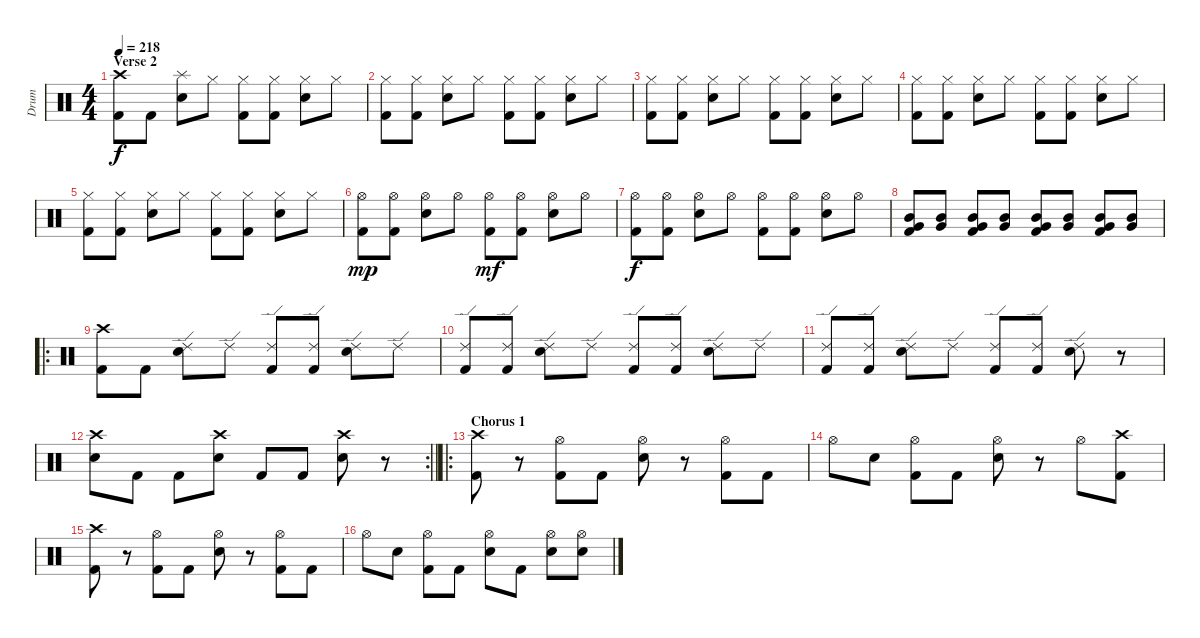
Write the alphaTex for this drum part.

\track ("Drum" "Drum") {instrument percussion}
\staff {score}
\articulation defaults
\ts (4 4)
\section ("" "Verse 2")
\tempo 218
\clef neutral
\ks c
("Kick (hit) 2" "Crash high (hit)").8{dy f} "Kick (hit) 2".8 ("Snare (hit) 2" "Splash (hit)").8 "Hi-Hat (closed)".8 ("Kick (hit) 2" "Hi-Hat (closed)").8 ("Kick (hit) 2" "Hi-Hat (closed)").8 ("Snare (hit) 2" "Hi-Hat (closed)").8 "Hi-Hat (closed)".8 |
("Kick (hit) 2" "Hi-Hat (closed)").8 ("Kick (hit) 2" "Hi-Hat (closed)").8 ("Snare (hit) 2" "Hi-Hat (closed)").8 "Hi-Hat (closed)".8 ("Kick (hit) 2" "Hi-Hat (closed)").8 ("Kick (hit) 2" "Hi-Hat (closed)").8 ("Snare (hit) 2" "Hi-Hat (closed)").8 "Hi-Hat (closed)".8 |
("Kick (hit) 2" "Hi-Hat (closed)").8 ("Kick (hit) 2" "Hi-Hat (closed)").8 ("Snare (hit) 2" "Hi-Hat (closed)").8 "Hi-Hat (closed)".8 ("Kick (hit) 2" "Hi-Hat (closed)").8 ("Kick (hit) 2" "Hi-Hat (closed)").8 ("Snare (hit) 2" "Hi-Hat (closed)").8 "Hi-Hat (closed)".8 |
("Kick (hit) 2" "Hi-Hat (closed)").8 ("Kick (hit) 2" "Hi-Hat (closed)").8 ("Snare (hit) 2" "Hi-Hat (closed)").8 "Hi-Hat (closed)".8 ("Kick (hit) 2" "Hi-Hat (closed)").8 ("Kick (hit) 2" "Hi-Hat (closed)").8 ("Snare (hit) 2" "Hi-Hat (closed)").8 "Hi-Hat (closed)".8 |
("Kick (hit) 2" "Hi-Hat (closed)").8 ("Kick (hit) 2" "Hi-Hat (closed)").8 ("Snare (hit) 2" "Hi-Hat (closed)").8 "Hi-Hat (closed)".8 ("Kick (hit) 2" "Hi-Hat (closed)").8 ("Kick (hit) 2" "Hi-Hat (closed)").8 ("Snare (hit) 2" "Hi-Hat (closed)").8 "Hi-Hat (closed)".8 |
("Kick (hit) 2" "Hi-Hat (open)").8{dy mp} ("Kick (hit) 2" "Hi-Hat (open)").8 ("Snare (hit) 2" "Hi-Hat (open)").8 "Hi-Hat (open)".8 ("Kick (hit) 2" "Hi-Hat (open)").8{dy mf} ("Kick (hit) 2" "Hi-Hat (open)").8 ("Snare (hit) 2" "Hi-Hat (open)").8 "Hi-Hat (open)".8 |
("Kick (hit) 2" "Hi-Hat (open)").8{dy f} ("Kick (hit) 2" "Hi-Hat (open)").8 ("Snare (hit) 2" "Hi-Hat (open)").8 "Hi-Hat (open)".8 ("Kick (hit) 2" "Hi-Hat (open)").8 ("Kick (hit) 2" "Hi-Hat (open)").8 ("Snare (hit) 2" "Hi-Hat (open)").8 "Hi-Hat (open)".8 |
("Mid Tom (hit)" "Very Low Tom (hit)" "Kick (hit) 2").8 ("Mid Tom (hit)" "Very Low Tom (hit)").8 ("Mid Tom (hit)" "Very Low Tom (hit)" "Kick (hit) 2").8 ("Mid Tom (hit)" "Very Low Tom (hit)").8 ("Mid Tom (hit)" "Very Low Tom (hit)" "Kick (hit) 2").8 ("Mid Tom (hit)" "Very Low Tom (hit)").8 ("Mid Tom (hit)" "Very Low Tom (hit)" "Kick (hit) 2").8 ("Mid Tom (hit)" "Very Low Tom (hit)").8 |
\ro
("Kick (hit) 2" "Crash high (hit)").8 "Kick (hit) 2".8 ("Snare (hit) 2" "Ride (edge) 2").8 "Ride (edge) 2".8 ("Kick (hit) 2" "Ride (edge) 2").8 ("Kick (hit) 2" "Ride (edge) 2").8 ("Snare (hit) 2" "Ride (edge) 2").8 "Ride (edge) 2".8 |
("Kick (hit) 2" "Ride (edge) 2").8 ("Kick (hit) 2" "Ride (edge) 2").8 ("Snare (hit) 2" "Ride (edge) 2").8 "Ride (edge) 2".8 ("Kick (hit) 2" "Ride (edge) 2").8 ("Kick (hit) 2" "Ride (edge) 2").8 ("Snare (hit) 2" "Ride (edge) 2").8 "Ride (edge) 2".8 |
("Kick (hit) 2" "Ride (edge) 2").8 ("Kick (hit) 2" "Ride (edge) 2").8 ("Snare (hit) 2" "Ride (edge) 2").8 "Ride (edge) 2".8 ("Kick (hit) 2" "Ride (edge) 2").8 ("Kick (hit) 2" "Ride (edge) 2").8 ("Snare (hit) 2" "Ride (edge) 2").8 r.8 |
\rc 2
\barLineRight lightlight
("Snare (hit) 2" "Crash high (hit)").8 "Kick (hit) 2".8 "Kick (hit) 2".8 ("Snare (hit) 2" "Crash high (hit)").8 "Kick (hit) 2".8 "Kick (hit) 2".8 ("Snare (hit) 2" "Crash high (hit)").8 r.8 |
\ro
\section ("" "Chorus 1")
("Kick (hit) 2" "Crash high (hit)").8 r.8 ("Kick (hit) 2" "Hi-Hat (open)").8 "Kick (hit) 2".8 ("Snare (hit) 2" "Hi-Hat (open)").8 r.8 ("Kick (hit) 2" "Hi-Hat (open)").8 "Kick (hit) 2".8 |
"Hi-Hat (open)".8 "Snare (hit) 2".8 ("Kick (hit) 2" "Hi-Hat (open)").8 "Kick (hit) 2".8 ("Snare (hit) 2" "Hi-Hat (open)").8 r.8 "Hi-Hat (open)".8 ("Kick (hit) 2" "Crash high (hit)").8 |
("Kick (hit) 2" "Crash high (hit)").8 r.8 ("Kick (hit) 2" "Hi-Hat (open)").8 "Kick (hit) 2".8 ("Snare (hit) 2" "Hi-Hat (open)").8 r.8 ("Kick (hit) 2" "Hi-Hat (open)").8 "Kick (hit) 2".8 |
"Hi-Hat (open)".8 "Snare (hit) 2".8 ("Kick (hit) 2" "Hi-Hat (open)").8 "Kick (hit) 2".8 ("Snare (hit) 2" "Hi-Hat (open)").8 "Kick (hit) 2".8 ("Snare (hit) 2" "Hi-Hat (open)").8 ("Snare (hit) 2" "Hi-Hat (open)").8
